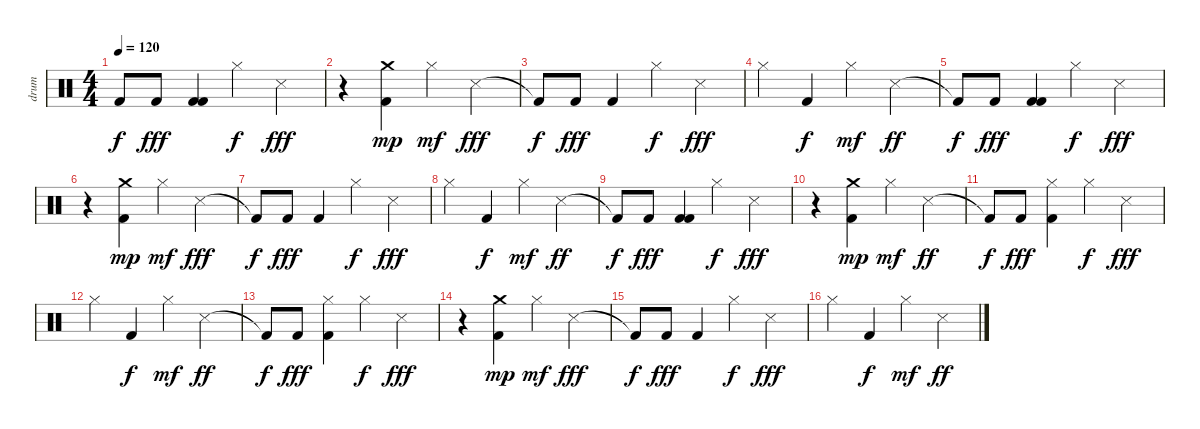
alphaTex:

\track ("drum" "drum") {instrument percussion}
\staff {score}
\articulation defaults
\ts (4 4)
\tempo 120
\clef neutral
\ks c "Kick (hit) 2"{t}.8{dy f} "Kick (hit) 2".8{dy fff}
("Kick (hit) 2" "Kick (hit) 2").4 "Hi-Hat (closed)".4{dy f} "Metronome (hit)".4{dy fff} |
r.4 ("Crash medium (hit)" "Kick (hit) 2").4{dy mp} "Hi-Hat (closed)".4{dy mf} "Metronome (hit)".4{dy fff} |
"Kick (hit) 2"{t}.8{dy f} "Kick (hit) 2".8{dy fff} "Kick (hit) 2".4 "Hi-Hat (closed)".4{dy f} "Metronome (hit)".4{dy fff} |
"Hi-Hat (closed)".4 "Kick (hit) 2".4{dy f} "Hi-Hat (closed)".4{dy mf} "Metronome (hit)".4{dy ff} |
"Kick (hit) 2"{t}.8{dy f} "Kick (hit) 2".8{dy fff} ("Kick (hit) 2" "Kick (hit) 2").4 "Hi-Hat (closed)".4{dy f} "Metronome (hit)".4{dy fff} |
r.4 ("Crash medium (hit)" "Kick (hit) 2").4{dy mp} "Hi-Hat (closed)".4{dy mf} "Metronome (hit)".4{dy fff} |
"Kick (hit) 2"{t}.8{dy f} "Kick (hit) 2".8{dy fff} "Kick (hit) 2".4 "Hi-Hat (closed)".4{dy f} "Metronome (hit)".4{dy fff} |
"Hi-Hat (closed)".4 "Kick (hit) 2".4{dy f} "Hi-Hat (closed)".4{dy mf} "Metronome (hit)".4{dy ff} |
"Kick (hit) 2"{t}.8{dy f} "Kick (hit) 2".8{dy fff} ("Kick (hit) 2" "Kick (hit) 2").4 "Hi-Hat (closed)".4{dy f} "Metronome (hit)".4{dy fff} |
r.4 ("Crash medium (hit)" "Kick (hit) 2").4{dy mp} "Hi-Hat (closed)".4{dy mf} "Metronome (hit)".4{dy ff} |
"Kick (hit) 2"{t}.8{dy f} "Kick (hit) 2".8{dy fff} ("Hi-Hat (closed)" "Kick (hit) 2").4 "Hi-Hat (closed)".4{dy f} "Metronome (hit)".4{dy fff} |
"Hi-Hat (closed)".4 "Kick (hit) 2".4{dy f} "Hi-Hat (closed)".4{dy mf} "Metronome (hit)".4{dy ff} |
"Kick (hit) 2"{t}.8{dy f} "Kick (hit) 2".8{dy fff} ("Hi-Hat (closed)" "Kick (hit) 2").4 "Hi-Hat (closed)".4{dy f} "Metronome (hit)".4{dy fff} |
r.4 ("Crash medium (hit)" "Kick (hit) 2").4{dy mp} "Hi-Hat (closed)".4{dy mf} "Metronome (hit)".4{dy fff} |
"Kick (hit) 2"{t}.8{dy f} "Kick (hit) 2".8{dy fff} "Kick (hit) 2".4 "Hi-Hat (closed)".4{dy f} "Metronome (hit)".4{dy fff} |
"Hi-Hat (closed)".4 "Kick (hit) 2".4{dy f} "Hi-Hat (closed)".4{dy mf} "Metronome (hit)".4{dy ff}
